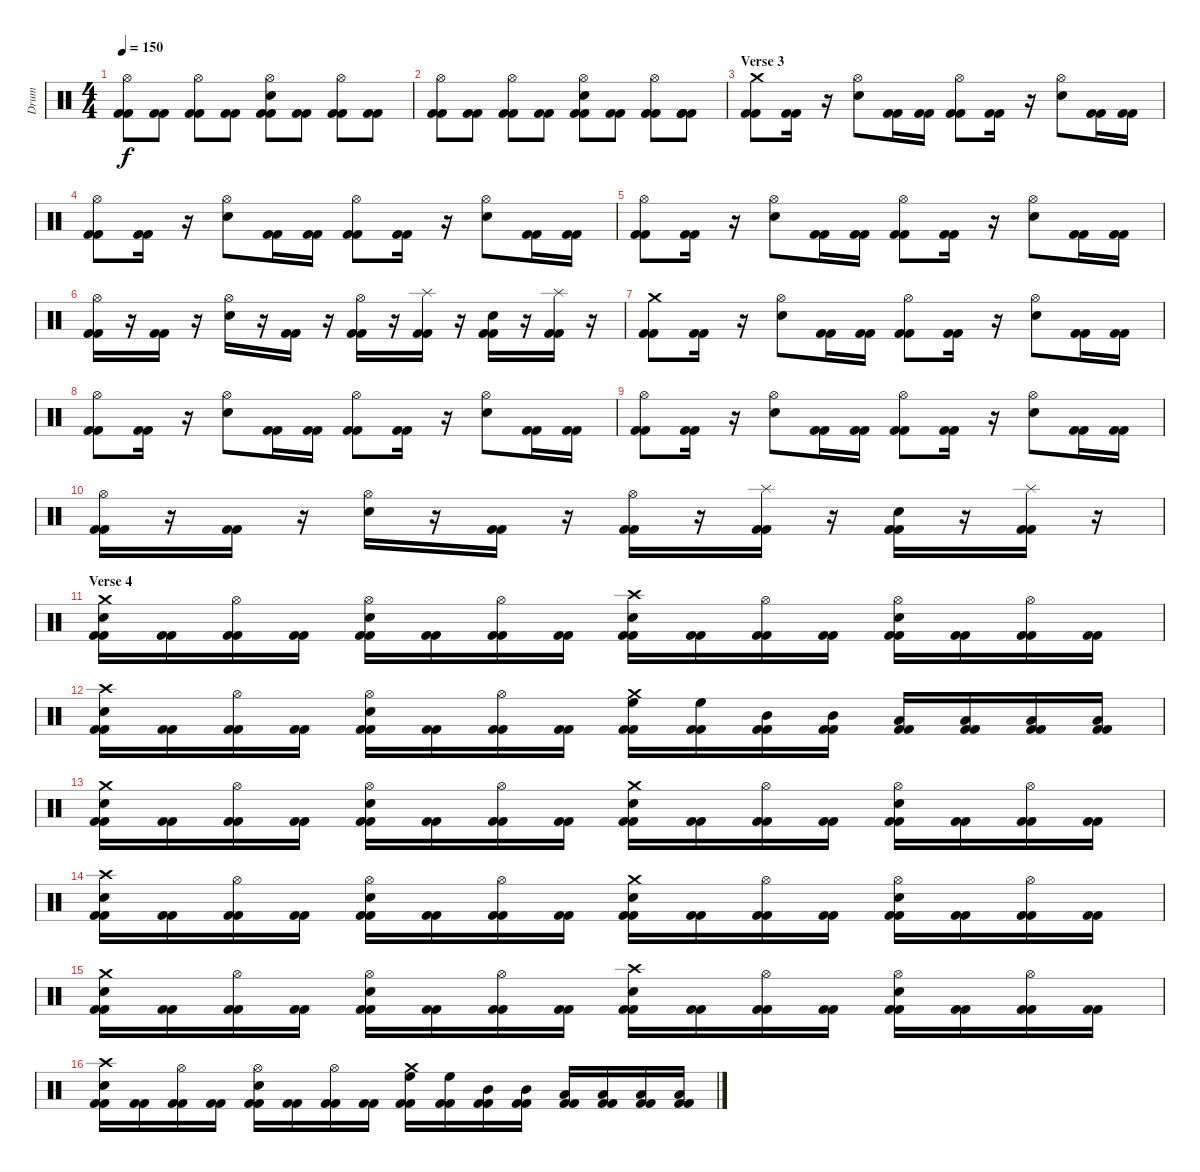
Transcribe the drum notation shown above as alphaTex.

\track ("Drum" "Drum") {instrument percussion}
\staff {score}
\articulation defaults
\ts (4 4)
\tempo 150
\clef neutral
\ks c
("Hi-Hat (open)" "Kick (hit) 2" "Kick (hit) 2").8{dy f} ("Kick (hit) 2" "Kick (hit) 2").8 ("Hi-Hat (open)" "Kick (hit) 2" "Kick (hit) 2").8 ("Kick (hit) 2" "Kick (hit) 2").8 ("Snare (hit) 2" "Hi-Hat (open)" "Kick (hit) 2" "Kick (hit) 2").8 ("Kick (hit) 2" "Kick (hit) 2").8 ("Hi-Hat (open)" "Kick (hit) 2" "Kick (hit) 2").8 ("Kick (hit) 2" "Kick (hit) 2").8 |
("Hi-Hat (open)" "Kick (hit) 2" "Kick (hit) 2").8 ("Kick (hit) 2" "Kick (hit) 2").8 ("Hi-Hat (open)" "Kick (hit) 2" "Kick (hit) 2").8 ("Kick (hit) 2" "Kick (hit) 2").8 ("Snare (hit) 2" "Hi-Hat (open)" "Kick (hit) 2" "Kick (hit) 2").8 ("Kick (hit) 2" "Kick (hit) 2").8 ("Hi-Hat (open)" "Kick (hit) 2" "Kick (hit) 2").8 ("Kick (hit) 2" "Kick (hit) 2" "Kick (hit) 2").8 |
\section ("" "Verse 3")
("Crash medium (hit)" "Kick (hit) 2" "Kick (hit) 2").8 ("Kick (hit) 2" "Kick (hit) 2").16 r.16 ("Snare (hit) 2" "Hi-Hat (open)").8 ("Kick (hit) 2" "Kick (hit) 2").16 ("Kick (hit) 2" "Kick (hit) 2").16 ("Hi-Hat (open)" "Kick (hit) 2" "Kick (hit) 2").8 ("Kick (hit) 2" "Kick (hit) 2").16 r.16 ("Snare (hit) 2" "Hi-Hat (open)").8 ("Kick (hit) 2" "Kick (hit) 2").16 ("Kick (hit) 2" "Kick (hit) 2").16 |
("Hi-Hat (open)" "Kick (hit) 2" "Kick (hit) 2").8 ("Kick (hit) 2" "Kick (hit) 2").16 r.16 ("Snare (hit) 2" "Hi-Hat (open)").8 ("Kick (hit) 2" "Kick (hit) 2").16 ("Kick (hit) 2" "Kick (hit) 2").16 ("Hi-Hat (open)" "Kick (hit) 2" "Kick (hit) 2").8 ("Kick (hit) 2" "Kick (hit) 2").16 r.16 ("Snare (hit) 2" "Hi-Hat (open)").8 ("Kick (hit) 2" "Kick (hit) 2").16 ("Kick (hit) 2" "Kick (hit) 2").16 |
("Hi-Hat (open)" "Kick (hit) 2" "Kick (hit) 2").8 ("Kick (hit) 2" "Kick (hit) 2").16 r.16 ("Snare (hit) 2" "Hi-Hat (open)").8 ("Kick (hit) 2" "Kick (hit) 2").16 ("Kick (hit) 2" "Kick (hit) 2").16 ("Hi-Hat (open)" "Kick (hit) 2" "Kick (hit) 2").8 ("Kick (hit) 2" "Kick (hit) 2").16 r.16 ("Snare (hit) 2" "Hi-Hat (open)").8 ("Kick (hit) 2" "Kick (hit) 2").16 ("Kick (hit) 2" "Kick (hit) 2").16 |
("Hi-Hat (open)" "Kick (hit) 2" "Kick (hit) 2").16 r.16 ("Kick (hit) 2" "Kick (hit) 2").16 r.16 ("Snare (hit) 2" "Hi-Hat (open)").16 r.16 ("Kick (hit) 2" "Kick (hit) 2").16 r.16 ("Hi-Hat (open)" "Kick (hit) 2" "Kick (hit) 2").16 r.16 ("Splash (hit)" "Kick (hit) 2" "Kick (hit) 2").16 r.16 ("Snare (hit) 2" "Kick (hit) 2" "Kick (hit) 2").16 r.16 ("Splash (hit)" "Kick (hit) 2" "Kick (hit) 2").16 r.16 |
("Crash medium (hit)" "Kick (hit) 2" "Kick (hit) 2").8 ("Kick (hit) 2" "Kick (hit) 2").16 r.16 ("Snare (hit) 2" "Hi-Hat (open)").8 ("Kick (hit) 2" "Kick (hit) 2").16 ("Kick (hit) 2" "Kick (hit) 2").16 ("Hi-Hat (open)" "Kick (hit) 2" "Kick (hit) 2").8 ("Kick (hit) 2" "Kick (hit) 2").16 r.16 ("Snare (hit) 2" "Hi-Hat (open)").8 ("Kick (hit) 2" "Kick (hit) 2").16 ("Kick (hit) 2" "Kick (hit) 2").16 |
("Hi-Hat (open)" "Kick (hit) 2" "Kick (hit) 2").8 ("Kick (hit) 2" "Kick (hit) 2").16 r.16 ("Snare (hit) 2" "Hi-Hat (open)").8 ("Kick (hit) 2" "Kick (hit) 2").16 ("Kick (hit) 2" "Kick (hit) 2").16 ("Hi-Hat (open)" "Kick (hit) 2" "Kick (hit) 2").8 ("Kick (hit) 2" "Kick (hit) 2").16 r.16 ("Snare (hit) 2" "Hi-Hat (open)").8 ("Kick (hit) 2" "Kick (hit) 2").16 ("Kick (hit) 2" "Kick (hit) 2").16 |
("Hi-Hat (open)" "Kick (hit) 2" "Kick (hit) 2").8 ("Kick (hit) 2" "Kick (hit) 2").16 r.16 ("Snare (hit) 2" "Hi-Hat (open)").8 ("Kick (hit) 2" "Kick (hit) 2").16 ("Kick (hit) 2" "Kick (hit) 2").16 ("Hi-Hat (open)" "Kick (hit) 2" "Kick (hit) 2").8 ("Kick (hit) 2" "Kick (hit) 2").16 r.16 ("Snare (hit) 2" "Hi-Hat (open)").8 ("Kick (hit) 2" "Kick (hit) 2").16 ("Kick (hit) 2" "Kick (hit) 2").16 |
("Hi-Hat (open)" "Kick (hit) 2" "Kick (hit) 2").16 r.16 ("Kick (hit) 2" "Kick (hit) 2").16 r.16 ("Snare (hit) 2" "Hi-Hat (open)").16 r.16 ("Kick (hit) 2" "Kick (hit) 2").16 r.16 ("Hi-Hat (open)" "Kick (hit) 2" "Kick (hit) 2").16 r.16 ("Splash (hit)" "Kick (hit) 2" "Kick (hit) 2").16 r.16 ("Snare (hit) 2" "Kick (hit) 2" "Kick (hit) 2").16 r.16 ("Splash (hit)" "Kick (hit) 2" "Kick (hit) 2").16 r.16 |
\section ("" "Verse 4")
("Snare (hit) 2" "Crash medium (hit)" "Kick (hit) 2" "Kick (hit) 2").16 ("Kick (hit) 2" "Kick (hit) 2").16 ("Hi-Hat (open)" "Kick (hit) 2" "Kick (hit) 2").16 ("Kick (hit) 2" "Kick (hit) 2").16 ("Snare (hit) 2" "Hi-Hat (open)" "Kick (hit) 2" "Kick (hit) 2").16 ("Kick (hit) 2" "Kick (hit) 2").16 ("Hi-Hat (open)" "Kick (hit) 2" "Kick (hit) 2").16 ("Kick (hit) 2" "Kick (hit) 2").16 ("Snare (hit) 2" "Crash high (hit)" "Kick (hit) 2" "Kick (hit) 2").16 ("Kick (hit) 2" "Kick (hit) 2").16 ("Hi-Hat (open)" "Kick (hit) 2" "Kick (hit) 2").16 ("Kick (hit) 2" "Kick (hit) 2").16 ("Snare (hit) 2" "Hi-Hat (open)" "Kick (hit) 2" "Kick (hit) 2").16 ("Kick (hit) 2" "Kick (hit) 2").16 ("Hi-Hat (open)" "Kick (hit) 2" "Kick (hit) 2").16 ("Kick (hit) 2" "Kick (hit) 2").16 |
("Snare (hit) 2" "Crash high (hit)" "Kick (hit) 2" "Kick (hit) 2").16 ("Kick (hit) 2" "Kick (hit) 2").16 ("Hi-Hat (open)" "Kick (hit) 2" "Kick (hit) 2").16 ("Kick (hit) 2" "Kick (hit) 2").16 ("Snare (hit) 2" "Hi-Hat (open)" "Kick (hit) 2" "Kick (hit) 2").16 ("Kick (hit) 2" "Kick (hit) 2").16 ("Hi-Hat (open)" "Kick (hit) 2" "Kick (hit) 2").16 ("Kick (hit) 2" "Kick (hit) 2").16 ("High Floor Tom (hit)" "Crash medium (hit)" "Kick (hit) 2" "Kick (hit) 2").16 ("High Floor Tom (hit)" "Kick (hit) 2" "Kick (hit) 2").16 ("Mid Tom (hit)" "Kick (hit) 2" "Kick (hit) 2").16 ("Mid Tom (hit)" "Kick (hit) 2" "Kick (hit) 2").16 ("Low Tom (hit)" "Kick (hit) 2" "Kick (hit) 2").16 ("Low Tom (hit)" "Kick (hit) 2" "Kick (hit) 2").16 ("Low Floor Tom (hit)" "Kick (hit) 2" "Kick (hit) 2").16 ("Low Floor Tom (hit)" "Kick (hit) 2" "Kick (hit) 2").16 |
("Snare (hit) 2" "Crash medium (hit)" "Kick (hit) 2" "Kick (hit) 2").16 ("Kick (hit) 2" "Kick (hit) 2").16 ("Hi-Hat (open)" "Kick (hit) 2" "Kick (hit) 2").16 ("Kick (hit) 2" "Kick (hit) 2").16 ("Snare (hit) 2" "Hi-Hat (open)" "Kick (hit) 2" "Kick (hit) 2").16 ("Kick (hit) 2" "Kick (hit) 2").16 ("Hi-Hat (open)" "Kick (hit) 2" "Kick (hit) 2").16 ("Kick (hit) 2" "Kick (hit) 2").16 ("Snare (hit) 2" "Crash medium (hit)" "Kick (hit) 2" "Kick (hit) 2").16 ("Kick (hit) 2" "Kick (hit) 2").16 ("Hi-Hat (open)" "Kick (hit) 2" "Kick (hit) 2").16 ("Kick (hit) 2" "Kick (hit) 2").16 ("Snare (hit) 2" "Hi-Hat (open)" "Kick (hit) 2" "Kick (hit) 2").16 ("Kick (hit) 2" "Kick (hit) 2").16 ("Hi-Hat (open)" "Kick (hit) 2" "Kick (hit) 2").16 ("Kick (hit) 2" "Kick (hit) 2").16 |
("Snare (hit) 2" "Crash high (hit)" "Kick (hit) 2" "Kick (hit) 2").16 ("Kick (hit) 2" "Kick (hit) 2").16 ("Hi-Hat (open)" "Kick (hit) 2" "Kick (hit) 2").16 ("Kick (hit) 2" "Kick (hit) 2").16 ("Snare (hit) 2" "Hi-Hat (open)" "Kick (hit) 2" "Kick (hit) 2").16 ("Kick (hit) 2" "Kick (hit) 2").16 ("Hi-Hat (open)" "Kick (hit) 2" "Kick (hit) 2").16 ("Kick (hit) 2" "Kick (hit) 2").16 ("Snare (hit) 2" "Crash medium (hit)" "Kick (hit) 2" "Kick (hit) 2").16 ("Kick (hit) 2" "Kick (hit) 2").16 ("Hi-Hat (open)" "Kick (hit) 2" "Kick (hit) 2").16 ("Kick (hit) 2" "Kick (hit) 2").16 ("Snare (hit) 2" "Hi-Hat (open)" "Kick (hit) 2" "Kick (hit) 2").16 ("Kick (hit) 2" "Kick (hit) 2").16 ("Hi-Hat (open)" "Kick (hit) 2" "Kick (hit) 2").16 ("Kick (hit) 2" "Kick (hit) 2").16 |
("Snare (hit) 2" "Crash medium (hit)" "Kick (hit) 2" "Kick (hit) 2").16 ("Kick (hit) 2" "Kick (hit) 2").16 ("Hi-Hat (open)" "Kick (hit) 2" "Kick (hit) 2").16 ("Kick (hit) 2" "Kick (hit) 2").16 ("Snare (hit) 2" "Hi-Hat (open)" "Kick (hit) 2" "Kick (hit) 2").16 ("Kick (hit) 2" "Kick (hit) 2").16 ("Hi-Hat (open)" "Kick (hit) 2" "Kick (hit) 2").16 ("Kick (hit) 2" "Kick (hit) 2").16 ("Snare (hit) 2" "Crash high (hit)" "Kick (hit) 2" "Kick (hit) 2").16 ("Kick (hit) 2" "Kick (hit) 2").16 ("Hi-Hat (open)" "Kick (hit) 2" "Kick (hit) 2").16 ("Kick (hit) 2" "Kick (hit) 2").16 ("Snare (hit) 2" "Hi-Hat (open)" "Kick (hit) 2" "Kick (hit) 2").16 ("Kick (hit) 2" "Kick (hit) 2").16 ("Hi-Hat (open)" "Kick (hit) 2" "Kick (hit) 2").16 ("Kick (hit) 2" "Kick (hit) 2").16 |
("Snare (hit) 2" "Crash high (hit)" "Kick (hit) 2" "Kick (hit) 2").16 ("Kick (hit) 2" "Kick (hit) 2").16 ("Hi-Hat (open)" "Kick (hit) 2" "Kick (hit) 2").16 ("Kick (hit) 2" "Kick (hit) 2").16 ("Snare (hit) 2" "Hi-Hat (open)" "Kick (hit) 2" "Kick (hit) 2").16 ("Kick (hit) 2" "Kick (hit) 2").16 ("Hi-Hat (open)" "Kick (hit) 2" "Kick (hit) 2").16 ("Kick (hit) 2" "Kick (hit) 2").16 ("High Floor Tom (hit)" "Crash medium (hit)" "Kick (hit) 2" "Kick (hit) 2").16 ("High Floor Tom (hit)" "Kick (hit) 2" "Kick (hit) 2").16 ("Mid Tom (hit)" "Kick (hit) 2" "Kick (hit) 2").16 ("Mid Tom (hit)" "Kick (hit) 2" "Kick (hit) 2").16 ("Low Tom (hit)" "Kick (hit) 2" "Kick (hit) 2").16 ("Low Tom (hit)" "Kick (hit) 2" "Kick (hit) 2").16 ("Low Floor Tom (hit)" "Kick (hit) 2" "Kick (hit) 2").16 ("Low Floor Tom (hit)" "Kick (hit) 2" "Kick (hit) 2").16
